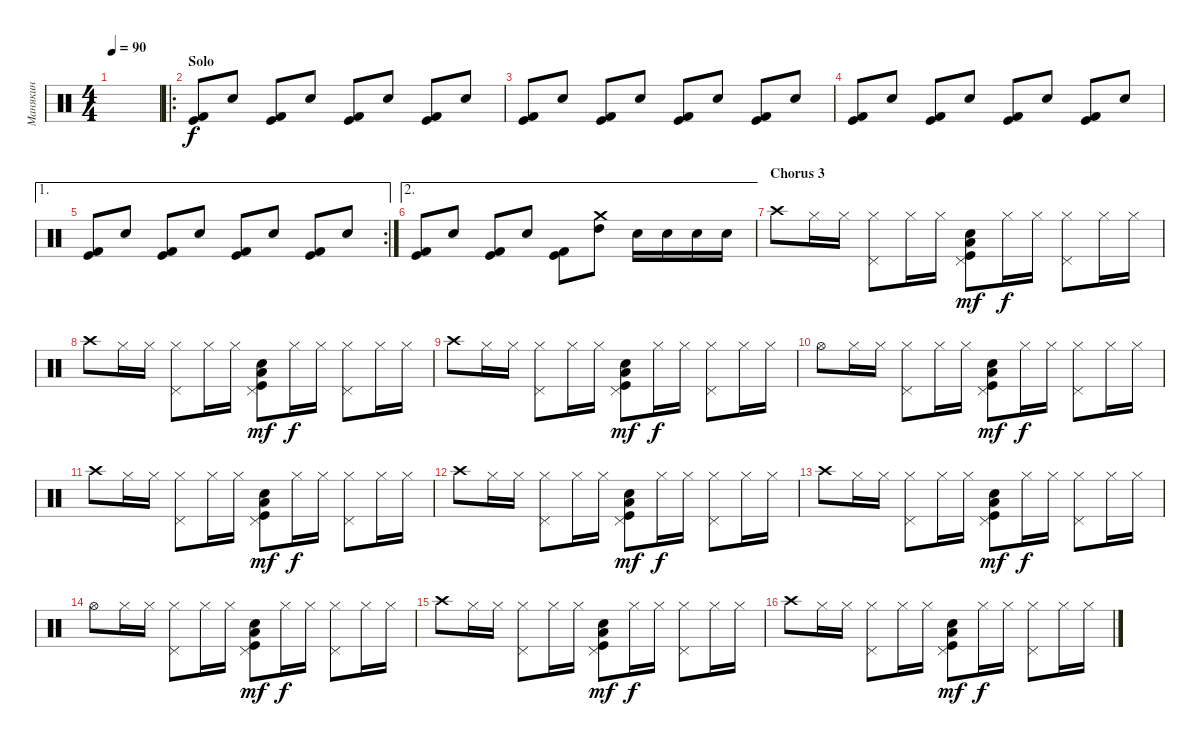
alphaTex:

\track ("Манякин" "Манякин") {instrument percussion}
\staff {score}
\articulation defaults
\ts (4 4)
\tempo 90
\clef neutral
\ks c
|
\ro
\section ("" "Solo")
("Kick (hit)" "Kick (hit) 2").8 "Electric Snare (hit)".8 ("Kick (hit)" "Kick (hit) 2").8 "Electric Snare (hit)".8 ("Kick (hit)" "Kick (hit) 2").8 "Electric Snare (hit)".8 ("Kick (hit)" "Kick (hit) 2").8 "Electric Snare (hit)".8 |
("Kick (hit)" "Kick (hit) 2").8 "Electric Snare (hit)".8 ("Kick (hit)" "Kick (hit) 2").8 "Electric Snare (hit)".8 ("Kick (hit)" "Kick (hit) 2").8 "Electric Snare (hit)".8 ("Kick (hit)" "Kick (hit) 2").8 "Electric Snare (hit)".8 |
("Kick (hit)" "Kick (hit) 2").8 "Electric Snare (hit)".8 ("Kick (hit)" "Kick (hit) 2").8 "Electric Snare (hit)".8 ("Kick (hit)" "Kick (hit) 2").8 "Electric Snare (hit)".8 ("Kick (hit)" "Kick (hit) 2").8 "Electric Snare (hit)".8 |
\ae 1
\rc 2
("Kick (hit)" "Kick (hit) 2").8 "Electric Snare (hit)".8 ("Kick (hit)" "Kick (hit) 2").8 "Electric Snare (hit)".8 ("Kick (hit)" "Kick (hit) 2").8 "Electric Snare (hit)".8 ("Kick (hit)" "Kick (hit) 2").8 "Electric Snare (hit)".8 |
\ae 2
("Kick (hit)" "Kick (hit) 2").8 "Electric Snare (hit)".8 ("Kick (hit)" "Kick (hit) 2").8 "Electric Snare (hit)".8 ("Kick (hit)" "Kick (hit) 2").8 ("Crash medium (hit)" "High Tom (hit)").8 "Electric Snare (hit)".16 "Electric Snare (hit)".16 "Electric Snare (hit)".16 "Electric Snare (hit)".16 |
\section ("" "Chorus 3")
"Crash high (hit)".8 "Hi-Hat (closed)".16 "Hi-Hat (closed)".16 ("Hi-Hat (closed)" "Pedal Hi-Hat (hit)").8 "Hi-Hat (closed)".16 "Hi-Hat (closed)".16 ("Low Tom (hit)" "Electric Snare (hit)" "Kick (hit)" "Pedal Hi-Hat (hit)").8{dy mf} "Hi-Hat (closed)".16{dy f} "Hi-Hat (closed)".16 ("Pedal Hi-Hat (hit)" "Hi-Hat (closed)").8 "Hi-Hat (closed)".16 "Hi-Hat (closed)".16 |
"Crash high (hit)".8 "Hi-Hat (closed)".16 "Hi-Hat (closed)".16 ("Hi-Hat (closed)" "Pedal Hi-Hat (hit)").8 "Hi-Hat (closed)".16 "Hi-Hat (closed)".16 ("Low Tom (hit)" "Electric Snare (hit)" "Kick (hit)" "Pedal Hi-Hat (hit)").8{dy mf} "Hi-Hat (closed)".16{dy f} "Hi-Hat (closed)".16 ("Pedal Hi-Hat (hit)" "Hi-Hat (closed)").8 "Hi-Hat (closed)".16 "Hi-Hat (closed)".16 |
"Crash high (hit)".8 "Hi-Hat (closed)".16 "Hi-Hat (closed)".16 ("Hi-Hat (closed)" "Pedal Hi-Hat (hit)").8 "Hi-Hat (closed)".16 "Hi-Hat (closed)".16 ("Low Tom (hit)" "Electric Snare (hit)" "Kick (hit)" "Pedal Hi-Hat (hit)").8{dy mf} "Hi-Hat (closed)".16{dy f} "Hi-Hat (closed)".16 ("Pedal Hi-Hat (hit)" "Hi-Hat (closed)").8 "Hi-Hat (closed)".16 "Hi-Hat (closed)".16 |
"Hi-Hat (open)".8 "Hi-Hat (closed)".16 "Hi-Hat (closed)".16 ("Hi-Hat (closed)" "Pedal Hi-Hat (hit)").8 "Hi-Hat (closed)".16 "Hi-Hat (closed)".16 ("Low Tom (hit)" "Electric Snare (hit)" "Kick (hit)" "Pedal Hi-Hat (hit)").8{dy mf} "Hi-Hat (closed)".16{dy f} "Hi-Hat (closed)".16 ("Pedal Hi-Hat (hit)" "Hi-Hat (closed)").8 "Hi-Hat (closed)".16 "Hi-Hat (closed)".16 |
"Crash high (hit)".8 "Hi-Hat (closed)".16 "Hi-Hat (closed)".16 ("Hi-Hat (closed)" "Pedal Hi-Hat (hit)").8 "Hi-Hat (closed)".16 "Hi-Hat (closed)".16 ("Low Tom (hit)" "Electric Snare (hit)" "Kick (hit)" "Pedal Hi-Hat (hit)").8{dy mf} "Hi-Hat (closed)".16{dy f} "Hi-Hat (closed)".16 ("Pedal Hi-Hat (hit)" "Hi-Hat (closed)").8 "Hi-Hat (closed)".16 "Hi-Hat (closed)".16 |
"Crash high (hit)".8 "Hi-Hat (closed)".16 "Hi-Hat (closed)".16 ("Hi-Hat (closed)" "Pedal Hi-Hat (hit)").8 "Hi-Hat (closed)".16 "Hi-Hat (closed)".16 ("Low Tom (hit)" "Electric Snare (hit)" "Kick (hit)" "Pedal Hi-Hat (hit)").8{dy mf} "Hi-Hat (closed)".16{dy f} "Hi-Hat (closed)".16 ("Pedal Hi-Hat (hit)" "Hi-Hat (closed)").8 "Hi-Hat (closed)".16 "Hi-Hat (closed)".16 |
"Crash high (hit)".8 "Hi-Hat (closed)".16 "Hi-Hat (closed)".16 ("Hi-Hat (closed)" "Pedal Hi-Hat (hit)").8 "Hi-Hat (closed)".16 "Hi-Hat (closed)".16 ("Low Tom (hit)" "Electric Snare (hit)" "Kick (hit)" "Pedal Hi-Hat (hit)").8{dy mf} "Hi-Hat (closed)".16{dy f} "Hi-Hat (closed)".16 ("Pedal Hi-Hat (hit)" "Hi-Hat (closed)").8 "Hi-Hat (closed)".16 "Hi-Hat (closed)".16 |
"Hi-Hat (open)".8 "Hi-Hat (closed)".16 "Hi-Hat (closed)".16 ("Hi-Hat (closed)" "Pedal Hi-Hat (hit)").8 "Hi-Hat (closed)".16 "Hi-Hat (closed)".16 ("Low Tom (hit)" "Electric Snare (hit)" "Kick (hit)" "Pedal Hi-Hat (hit)").8{dy mf} "Hi-Hat (closed)".16{dy f} "Hi-Hat (closed)".16 ("Pedal Hi-Hat (hit)" "Hi-Hat (closed)").8 "Hi-Hat (closed)".16 "Hi-Hat (closed)".16 |
"Crash high (hit)".8 "Hi-Hat (closed)".16 "Hi-Hat (closed)".16 ("Hi-Hat (closed)" "Pedal Hi-Hat (hit)").8 "Hi-Hat (closed)".16 "Hi-Hat (closed)".16 ("Low Tom (hit)" "Electric Snare (hit)" "Kick (hit)" "Pedal Hi-Hat (hit)").8{dy mf} "Hi-Hat (closed)".16{dy f} "Hi-Hat (closed)".16 ("Pedal Hi-Hat (hit)" "Hi-Hat (closed)").8 "Hi-Hat (closed)".16 "Hi-Hat (closed)".16 |
"Crash high (hit)".8 "Hi-Hat (closed)".16 "Hi-Hat (closed)".16 ("Hi-Hat (closed)" "Pedal Hi-Hat (hit)").8 "Hi-Hat (closed)".16 "Hi-Hat (closed)".16 ("Low Tom (hit)" "Electric Snare (hit)" "Kick (hit)" "Pedal Hi-Hat (hit)").8{dy mf} "Hi-Hat (closed)".16{dy f} "Hi-Hat (closed)".16 ("Pedal Hi-Hat (hit)" "Hi-Hat (closed)").8 "Hi-Hat (closed)".16 "Hi-Hat (closed)".16
